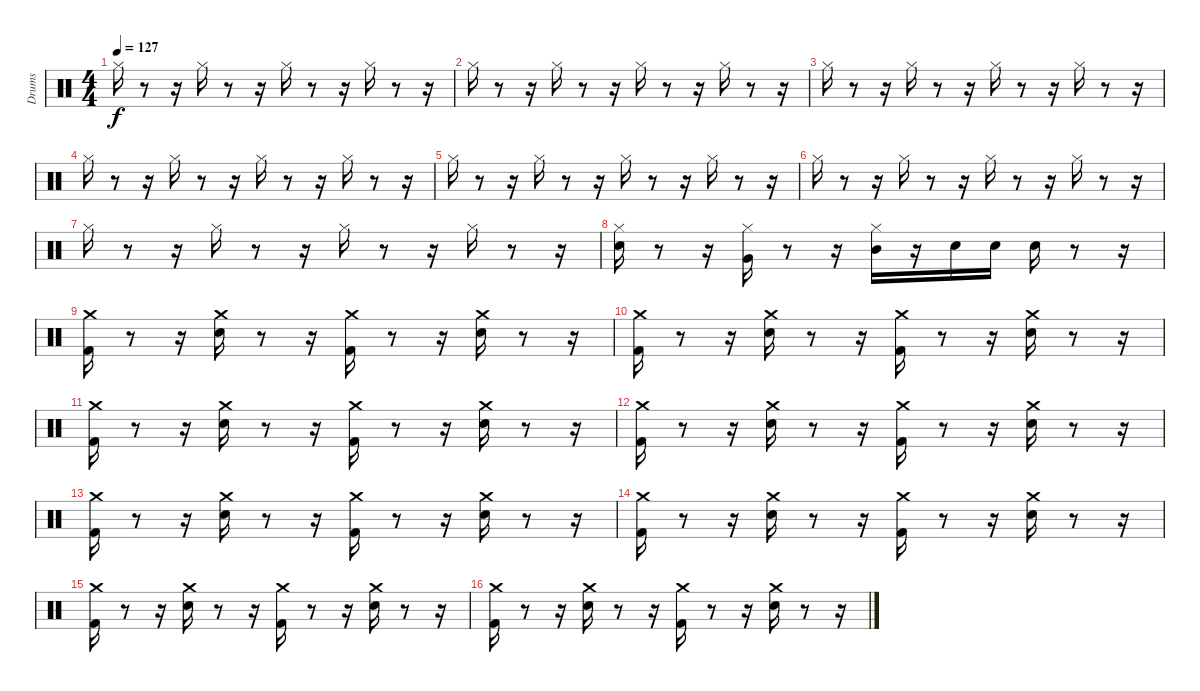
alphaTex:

\track ("Drums               " "Drums     ") {instrument percussion}
\staff {score}
\articulation defaults
\ts (4 4)
\tempo 127
\clef neutral
\ks c "Hi-Hat (closed)".16{dy f}
r.8 r.16 "Hi-Hat (closed)".16 r.8 r.16 "Hi-Hat (closed)".16 r.8 r.16 "Hi-Hat (closed)".16 r.8 r.16 |
"Hi-Hat (closed)".16 r.8 r.16 "Hi-Hat (closed)".16 r.8 r.16 "Hi-Hat (closed)".16 r.8 r.16 "Hi-Hat (closed)".16 r.8 r.16 |
"Hi-Hat (closed)".16 r.8 r.16 "Hi-Hat (closed)".16 r.8 r.16 "Hi-Hat (closed)".16 r.8 r.16 "Hi-Hat (closed)".16 r.8 r.16 |
"Hi-Hat (closed)".16 r.8 r.16 "Hi-Hat (closed)".16 r.8 r.16 "Hi-Hat (closed)".16 r.8 r.16 "Hi-Hat (closed)".16 r.8 r.16 |
"Hi-Hat (closed)".16 r.8 r.16 "Hi-Hat (closed)".16 r.8 r.16 "Hi-Hat (closed)".16 r.8 r.16 "Hi-Hat (closed)".16 r.8 r.16 |
"Hi-Hat (closed)".16 r.8 r.16 "Hi-Hat (closed)".16 r.8 r.16 "Hi-Hat (closed)".16 r.8 r.16 "Hi-Hat (closed)".16 r.8 r.16 |
"Hi-Hat (closed)".16 r.8 r.16 "Hi-Hat (closed)".16 r.8 r.16 "Hi-Hat (closed)".16 r.8 r.16 "Hi-Hat (closed)".16 r.8 r.16 |
("Hi-Hat (closed)" "Electric Snare (hit)").16 r.8 r.16 ("Hi-Hat (closed)" "Very Low Tom (hit)").16 r.8 r.16 ("Hi-Hat (closed)" "Mid Tom (hit)").16 r.16 "Electric Snare (hit)".16 "Electric Snare (hit)".16 "Electric Snare (hit)".16 r.8 r.16 |
("Kick (hit) 2" "Crash medium (hit)").16 r.8 r.16 ("Electric Snare (hit)" "Crash medium (hit)").16 r.8 r.16 ("Kick (hit) 2" "Crash medium (hit)").16 r.8 r.16 ("Electric Snare (hit)" "Crash medium (hit)").16 r.8 r.16 |
("Kick (hit) 2" "Crash medium (hit)").16 r.8 r.16 ("Electric Snare (hit)" "Crash medium (hit)").16 r.8 r.16 ("Kick (hit) 2" "Crash medium (hit)").16 r.8 r.16 ("Electric Snare (hit)" "Crash medium (hit)").16 r.8 r.16 |
("Kick (hit) 2" "Crash medium (hit)").16 r.8 r.16 ("Electric Snare (hit)" "Crash medium (hit)").16 r.8 r.16 ("Kick (hit) 2" "Crash medium (hit)").16 r.8 r.16 ("Electric Snare (hit)" "Crash medium (hit)").16 r.8 r.16 |
("Kick (hit) 2" "Crash medium (hit)").16 r.8 r.16 ("Electric Snare (hit)" "Crash medium (hit)").16 r.8 r.16 ("Kick (hit) 2" "Crash medium (hit)").16 r.8 r.16 ("Electric Snare (hit)" "Crash medium (hit)").16 r.8 r.16 |
("Kick (hit) 2" "Crash medium (hit)").16 r.8 r.16 ("Electric Snare (hit)" "Crash medium (hit)").16 r.8 r.16 ("Kick (hit) 2" "Crash medium (hit)").16 r.8 r.16 ("Electric Snare (hit)" "Crash medium (hit)").16 r.8 r.16 |
("Kick (hit) 2" "Crash medium (hit)").16 r.8 r.16 ("Electric Snare (hit)" "Crash medium (hit)").16 r.8 r.16 ("Kick (hit) 2" "Crash medium (hit)").16 r.8 r.16 ("Electric Snare (hit)" "Crash medium (hit)").16 r.8 r.16 |
("Kick (hit) 2" "Crash medium (hit)").16 r.8 r.16 ("Electric Snare (hit)" "Crash medium (hit)").16 r.8 r.16 ("Kick (hit) 2" "Crash medium (hit)").16 r.8 r.16 ("Electric Snare (hit)" "Crash medium (hit)").16 r.8 r.16 |
("Kick (hit) 2" "Crash medium (hit)").16 r.8 r.16 ("Electric Snare (hit)" "Crash medium (hit)").16 r.8 r.16 ("Kick (hit) 2" "Crash medium (hit)").16 r.8 r.16 ("Electric Snare (hit)" "Crash medium (hit)").16 r.8 r.16
